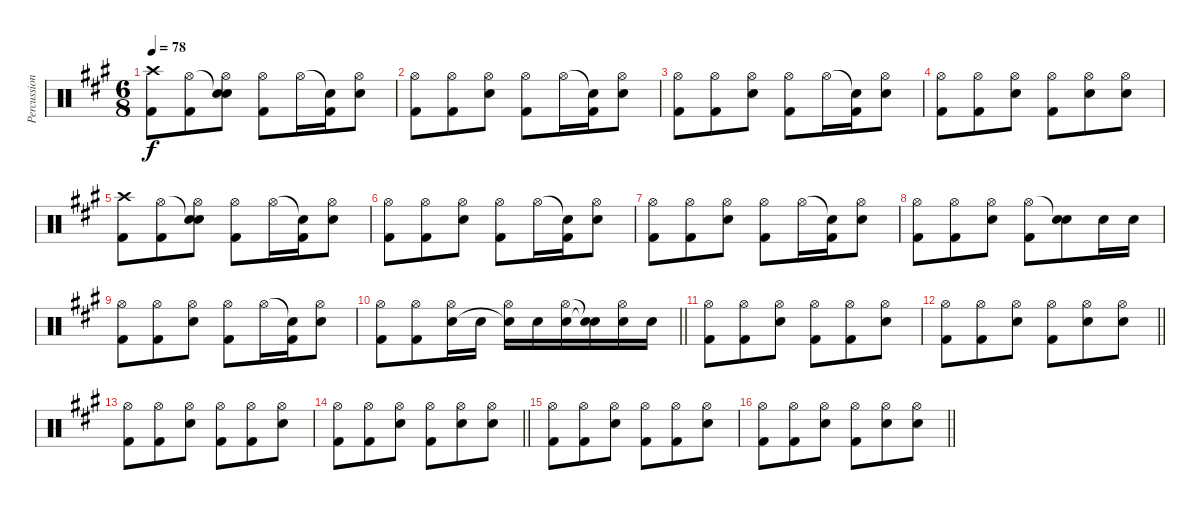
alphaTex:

\track ("Percussions" "Percussion") {instrument percussion}
\staff {score}
\articulation defaults
\ts (6 8)
\tempo 78
\clef neutral
\ks a
("Crash high (hit)" "Kick (hit) 2").8{dy f} ("Hi-Hat (open)" "Kick (hit) 2").8 ("Snare (hit)"{t} "Hi-Hat (open)" "Snare (hit) 2").8 ("Hi-Hat (open)" "Kick (hit) 2").8 "Hi-Hat (open)".16 ("Snare (hit)"{t} "Kick (hit) 2").16 ("Hi-Hat (open)" "Snare (hit) 2").8 |
("Hi-Hat (open)" "Kick (hit) 2").8 ("Hi-Hat (open)" "Kick (hit) 2").8 ("Hi-Hat (open)" "Snare (hit) 2").8 ("Hi-Hat (open)" "Kick (hit) 2").8 "Hi-Hat (open)".16 ("Snare (hit)"{t} "Kick (hit) 2").16 ("Hi-Hat (open)" "Snare (hit) 2").8 |
("Hi-Hat (open)" "Kick (hit) 2").8 ("Hi-Hat (open)" "Kick (hit) 2").8 ("Hi-Hat (open)" "Snare (hit) 2").8 ("Hi-Hat (open)" "Kick (hit) 2").8 "Hi-Hat (open)".16 ("Snare (hit)"{t} "Kick (hit) 2").16 ("Hi-Hat (open)" "Snare (hit) 2").8 |
("Hi-Hat (open)" "Kick (hit) 2").8 ("Hi-Hat (open)" "Kick (hit) 2").8 ("Hi-Hat (open)" "Snare (hit) 2").8 ("Hi-Hat (open)" "Kick (hit) 2").8 ("Hi-Hat (open)" "Snare (hit) 2").8 ("Hi-Hat (open)" "Snare (hit) 2").8 |
("Crash high (hit)" "Kick (hit) 2").8 ("Hi-Hat (open)" "Kick (hit) 2").8 ("Snare (hit)"{t} "Hi-Hat (open)" "Snare (hit) 2").8 ("Hi-Hat (open)" "Kick (hit) 2").8 "Hi-Hat (open)".16 ("Snare (hit)"{t} "Kick (hit) 2").16 ("Hi-Hat (open)" "Snare (hit) 2").8 |
("Hi-Hat (open)" "Kick (hit) 2").8 ("Hi-Hat (open)" "Kick (hit) 2").8 ("Hi-Hat (open)" "Snare (hit) 2").8 ("Hi-Hat (open)" "Kick (hit) 2").8 "Hi-Hat (open)".16 ("Snare (hit)"{t} "Kick (hit) 2").16 ("Hi-Hat (open)" "Snare (hit) 2").8 |
("Hi-Hat (open)" "Kick (hit) 2").8 ("Hi-Hat (open)" "Kick (hit) 2").8 ("Hi-Hat (open)" "Snare (hit) 2").8 ("Hi-Hat (open)" "Kick (hit) 2").8 "Hi-Hat (open)".16 ("Snare (hit)"{t} "Kick (hit) 2").16 ("Hi-Hat (open)" "Snare (hit) 2").8 |
("Hi-Hat (open)" "Kick (hit) 2").8 ("Hi-Hat (open)" "Kick (hit) 2").8 ("Hi-Hat (open)" "Snare (hit) 2").8 ("Hi-Hat (open)" "Kick (hit) 2").8 ("Snare (hit)"{t} "Snare (hit) 2").8 "Snare (hit) 2".16 "Snare (hit) 2".16 |
("Hi-Hat (open)" "Kick (hit) 2").8 ("Hi-Hat (open)" "Kick (hit) 2").8 ("Hi-Hat (open)" "Snare (hit) 2").8 ("Hi-Hat (open)" "Kick (hit) 2").8 "Hi-Hat (open)".16 ("Snare (hit)"{t} "Kick (hit) 2").16 ("Hi-Hat (open)" "Snare (hit) 2").8 |
\barLineRight lightlight
("Hi-Hat (open)" "Kick (hit) 2").8 ("Hi-Hat (open)" "Kick (hit) 2").8 ("Hi-Hat (open)" "Snare (hit) 2").16 "Snare (hit) 2".16 ("Hi-Hat (open)" "Snare (hit)"{t}).16 "Snare (hit) 2".16 ("Hi-Hat (open)" "Snare (hit) 2").16 ("Snare (hit)"{t} "Snare (hit) 2"{t}).16 ("Hi-Hat (open)" "Snare (hit) 2").16 "Snare (hit) 2".16 |
("Hi-Hat (open)" "Kick (hit) 2").8 ("Hi-Hat (open)" "Kick (hit) 2").8 ("Hi-Hat (open)" "Snare (hit) 2").8 ("Hi-Hat (open)" "Kick (hit) 2").8 ("Hi-Hat (open)" "Kick (hit) 2").8 ("Hi-Hat (open)" "Snare (hit) 2").8 |
\barLineRight lightlight
("Hi-Hat (open)" "Kick (hit) 2").8 ("Hi-Hat (open)" "Kick (hit) 2").8 ("Hi-Hat (open)" "Snare (hit) 2").8 ("Hi-Hat (open)" "Kick (hit) 2").8 ("Hi-Hat (open)" "Snare (hit) 2").8 ("Hi-Hat (open)" "Snare (hit) 2").8 |
("Hi-Hat (open)" "Kick (hit) 2").8 ("Hi-Hat (open)" "Kick (hit) 2").8 ("Hi-Hat (open)" "Snare (hit) 2").8 ("Hi-Hat (open)" "Kick (hit) 2").8 ("Hi-Hat (open)" "Kick (hit) 2").8 ("Hi-Hat (open)" "Snare (hit) 2").8 |
\barLineRight lightlight
("Hi-Hat (open)" "Kick (hit) 2").8 ("Hi-Hat (open)" "Kick (hit) 2").8 ("Hi-Hat (open)" "Snare (hit) 2").8 ("Hi-Hat (open)" "Kick (hit) 2").8 ("Hi-Hat (open)" "Snare (hit) 2").8 ("Hi-Hat (open)" "Snare (hit) 2").8 |
("Hi-Hat (open)" "Kick (hit) 2").8 ("Hi-Hat (open)" "Kick (hit) 2").8 ("Hi-Hat (open)" "Snare (hit) 2").8 ("Hi-Hat (open)" "Kick (hit) 2").8 ("Hi-Hat (open)" "Kick (hit) 2").8 ("Hi-Hat (open)" "Snare (hit) 2").8 |
\barLineRight lightlight
("Hi-Hat (open)" "Kick (hit) 2").8 ("Hi-Hat (open)" "Kick (hit) 2").8 ("Hi-Hat (open)" "Snare (hit) 2").8 ("Hi-Hat (open)" "Kick (hit) 2").8 ("Hi-Hat (open)" "Snare (hit) 2").8 ("Hi-Hat (open)" "Snare (hit) 2").8
